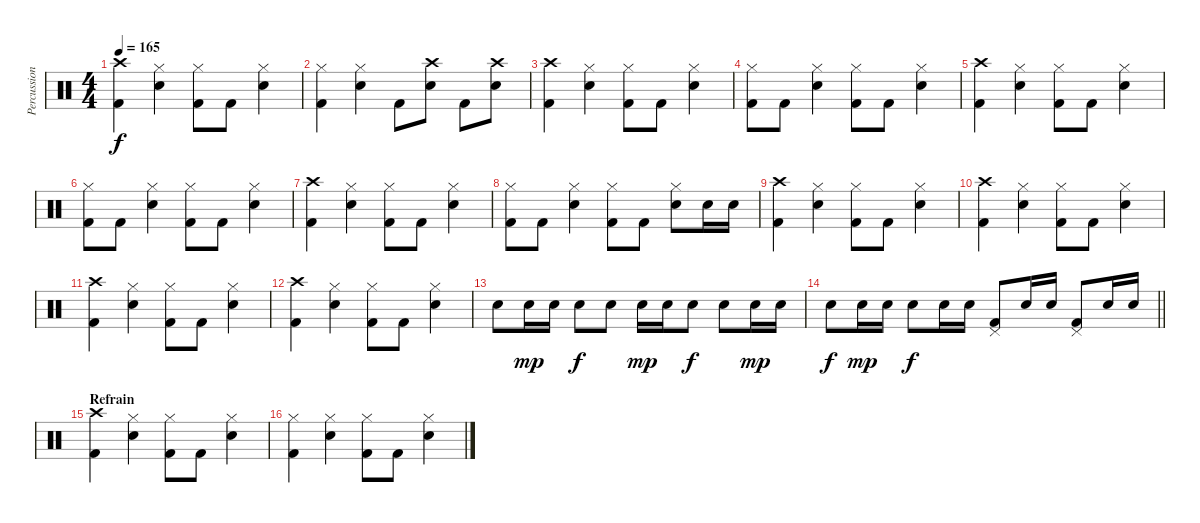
\track ("Percussions" "Percussion") {instrument percussion}
\staff {score}
\articulation defaults
\ts (4 4)
\tempo 165
\clef neutral
\ks c
("Crash high (hit)" "Kick (hit) 2").4{dy f} ("Hi-Hat (closed)" "Electric Snare (hit)").4 ("Hi-Hat (closed)" "Kick (hit) 2").8 "Kick (hit) 2".8 ("Hi-Hat (closed)" "Electric Snare (hit)").4 |
("Hi-Hat (closed)" "Kick (hit) 2").4 ("Hi-Hat (closed)" "Electric Snare (hit)").4 "Kick (hit) 2".8 ("Crash high (hit)" "Electric Snare (hit)").8 "Kick (hit) 2".8 ("Crash high (hit)" "Electric Snare (hit)").8 |
("Crash high (hit)" "Kick (hit) 2").4 ("Hi-Hat (closed)" "Electric Snare (hit)").4 ("Hi-Hat (closed)" "Kick (hit) 2").8 "Kick (hit) 2".8 ("Hi-Hat (closed)" "Electric Snare (hit)").4 |
("Hi-Hat (closed)" "Kick (hit) 2").8 "Kick (hit) 2".8 ("Hi-Hat (closed)" "Electric Snare (hit)").4 ("Hi-Hat (closed)" "Kick (hit) 2").8 "Kick (hit) 2".8 ("Hi-Hat (closed)" "Electric Snare (hit)").4 |
("Crash high (hit)" "Kick (hit) 2").4 ("Hi-Hat (closed)" "Electric Snare (hit)").4 ("Hi-Hat (closed)" "Kick (hit) 2").8 "Kick (hit) 2".8 ("Hi-Hat (closed)" "Electric Snare (hit)").4 |
("Hi-Hat (closed)" "Kick (hit) 2").8 "Kick (hit) 2".8 ("Hi-Hat (closed)" "Electric Snare (hit)").4 ("Hi-Hat (closed)" "Kick (hit) 2").8 "Kick (hit) 2".8 ("Hi-Hat (closed)" "Electric Snare (hit)").4 |
("Crash high (hit)" "Kick (hit) 2").4 ("Hi-Hat (closed)" "Electric Snare (hit)").4 ("Hi-Hat (closed)" "Kick (hit) 2").8 "Kick (hit) 2".8 ("Hi-Hat (closed)" "Electric Snare (hit)").4 |
("Hi-Hat (closed)" "Kick (hit) 2").8 "Kick (hit) 2".8 ("Hi-Hat (closed)" "Electric Snare (hit)").4 ("Hi-Hat (closed)" "Kick (hit) 2").8 "Kick (hit) 2".8 ("Hi-Hat (closed)" "Electric Snare (hit)").8 "Electric Snare (hit)".16 "Electric Snare (hit)".16 |
("Crash high (hit)" "Kick (hit) 2").4 ("Hi-Hat (closed)" "Electric Snare (hit)").4 ("Hi-Hat (closed)" "Kick (hit) 2").8 "Kick (hit) 2".8 ("Hi-Hat (closed)" "Electric Snare (hit)").4 |
("Crash high (hit)" "Kick (hit) 2").4 ("Hi-Hat (closed)" "Electric Snare (hit)").4 ("Hi-Hat (closed)" "Kick (hit) 2").8 "Kick (hit) 2".8 ("Hi-Hat (closed)" "Electric Snare (hit)").4 |
("Crash high (hit)" "Kick (hit) 2").4 ("Hi-Hat (closed)" "Electric Snare (hit)").4 ("Hi-Hat (closed)" "Kick (hit) 2").8 "Kick (hit) 2".8 ("Hi-Hat (closed)" "Electric Snare (hit)").4 |
("Crash high (hit)" "Kick (hit) 2").4 ("Hi-Hat (closed)" "Electric Snare (hit)").4 ("Hi-Hat (closed)" "Kick (hit) 2").8 "Kick (hit) 2".8 ("Hi-Hat (closed)" "Electric Snare (hit)").4 |
"Electric Snare (hit)".8 "Electric Snare (hit)".16{dy mp} "Electric Snare (hit)".16 "Electric Snare (hit)".8{dy f} "Electric Snare (hit)".8 "Electric Snare (hit)".16{dy mp} "Electric Snare (hit)".16 "Electric Snare (hit)".8{dy f} "Electric Snare (hit)".8 "Electric Snare (hit)".16{dy mp} "Electric Snare (hit)".16 |
\barLineRight lightlight "Electric Snare (hit)".8{dy f} "Electric Snare (hit)".16{dy mp} "Electric Snare (hit)".16 "Electric Snare (hit)".8{dy f} "Electric Snare (hit)".16 "Electric Snare (hit)".16
("Pedal Hi-Hat (hit)" "Kick (hit) 2").8 "Electric Snare (hit)".16 "Electric Snare (hit)".16 ("Pedal Hi-Hat (hit)" "Kick (hit) 2").8 "Electric Snare (hit)".16 "Electric Snare (hit)".16 |
\section ("" "Refrain")
("Crash high (hit)" "Kick (hit) 2").4 ("Hi-Hat (closed)" "Electric Snare (hit)").4 ("Hi-Hat (closed)" "Kick (hit) 2").8 "Kick (hit) 2".8 ("Hi-Hat (closed)" "Electric Snare (hit)").4 |
("Hi-Hat (closed)" "Kick (hit) 2").4 ("Hi-Hat (closed)" "Electric Snare (hit)").4 ("Hi-Hat (closed)" "Kick (hit) 2").8 "Kick (hit) 2".8 ("Hi-Hat (closed)" "Electric Snare (hit)").4
